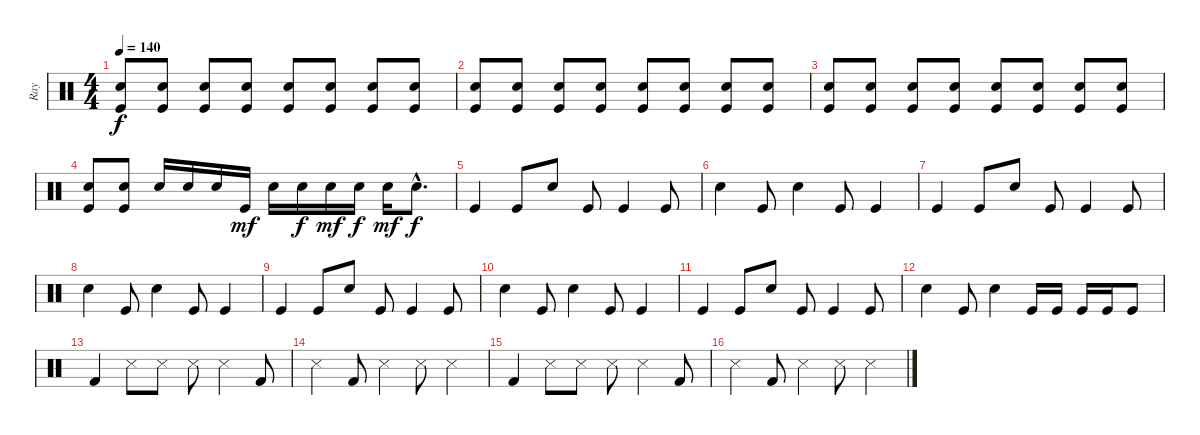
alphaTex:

\track ("Ray" "Ray") {instrument percussion}
\staff {score}
\articulation defaults
\ts (4 4)
\tempo 140
\clef neutral
\ks c
("Kick (hit)" "Snare (hit) 2").8{dy f} ("Kick (hit)" "Snare (hit) 2").8 ("Kick (hit)" "Snare (hit) 2").8 ("Kick (hit)" "Snare (hit) 2").8 ("Kick (hit)" "Snare (hit) 2").8 ("Kick (hit)" "Snare (hit) 2").8 ("Kick (hit)" "Snare (hit) 2").8 ("Kick (hit)" "Snare (hit) 2").8 |
("Kick (hit)" "Snare (hit) 2").8 ("Kick (hit)" "Snare (hit) 2").8 ("Kick (hit)" "Snare (hit) 2").8 ("Kick (hit)" "Snare (hit) 2").8 ("Kick (hit)" "Snare (hit) 2").8 ("Kick (hit)" "Snare (hit) 2").8 ("Kick (hit)" "Snare (hit) 2").8 ("Kick (hit)" "Snare (hit) 2").8 |
("Kick (hit)" "Snare (hit) 2").8 ("Kick (hit)" "Snare (hit) 2").8 ("Kick (hit)" "Snare (hit) 2").8 ("Kick (hit)" "Snare (hit) 2").8 ("Kick (hit)" "Snare (hit) 2").8 ("Kick (hit)" "Snare (hit) 2").8 ("Kick (hit)" "Snare (hit) 2").8 ("Kick (hit)" "Snare (hit) 2").8 |
("Kick (hit)" "Snare (hit) 2").8 ("Kick (hit)" "Snare (hit) 2").8 "Snare (hit) 2".16 "Snare (hit) 2".16 "Snare (hit) 2".16 "Kick (hit)".16{dy mf} "Snare (hit) 2".16 "Snare (hit) 2".16{dy f} "Snare (hit) 2".16{dy mf} "Snare (hit) 2".16{dy f} "Snare (hit) 2".16{dy mf} "Snare (hit) 2"{hac}.8{d dy f} |
"Kick (hit)".4 "Kick (hit)".8 "Snare (hit) 2".8 "Kick (hit)".8 "Kick (hit)".4 "Kick (hit)".8 |
"Snare (hit) 2".4 "Kick (hit)".8 "Snare (hit) 2".4 "Kick (hit)".8 "Kick (hit)".4 |
"Kick (hit)".4 "Kick (hit)".8 "Snare (hit) 2".8 "Kick (hit)".8 "Kick (hit)".4 "Kick (hit)".8 |
"Snare (hit) 2".4 "Kick (hit)".8 "Snare (hit) 2".4 "Kick (hit)".8 "Kick (hit)".4 |
"Kick (hit)".4 "Kick (hit)".8 "Snare (hit) 2".8 "Kick (hit)".8 "Kick (hit)".4 "Kick (hit)".8 |
"Snare (hit) 2".4 "Kick (hit)".8 "Snare (hit) 2".4 "Kick (hit)".8 "Kick (hit)".4 |
"Kick (hit)".4 "Kick (hit)".8 "Snare (hit) 2".8 "Kick (hit)".8 "Kick (hit)".4 "Kick (hit)".8 |
"Snare (hit) 2".4 "Kick (hit)".8 "Snare (hit) 2".4 "Kick (hit)".16 "Kick (hit)".16 "Kick (hit)".16 "Kick (hit)".16 "Kick (hit)".8 |
"Kick (hit) 2".4 "Snare (side stick) 3".8 "Snare (side stick) 3".8 "Snare (side stick) 3".8 "Snare (side stick) 3".4 "Kick (hit) 2".8 |
"Snare (side stick) 3".4 "Kick (hit) 2".8 "Snare (side stick) 3".4 "Snare (side stick) 3".8 "Snare (side stick) 3".4 |
"Kick (hit) 2".4 "Snare (side stick) 3".8 "Snare (side stick) 3".8 "Snare (side stick) 3".8 "Snare (side stick) 3".4 "Kick (hit) 2".8 |
"Snare (side stick) 3".4 "Kick (hit) 2".8 "Snare (side stick) 3".4 "Snare (side stick) 3".8 "Snare (side stick) 3".4
